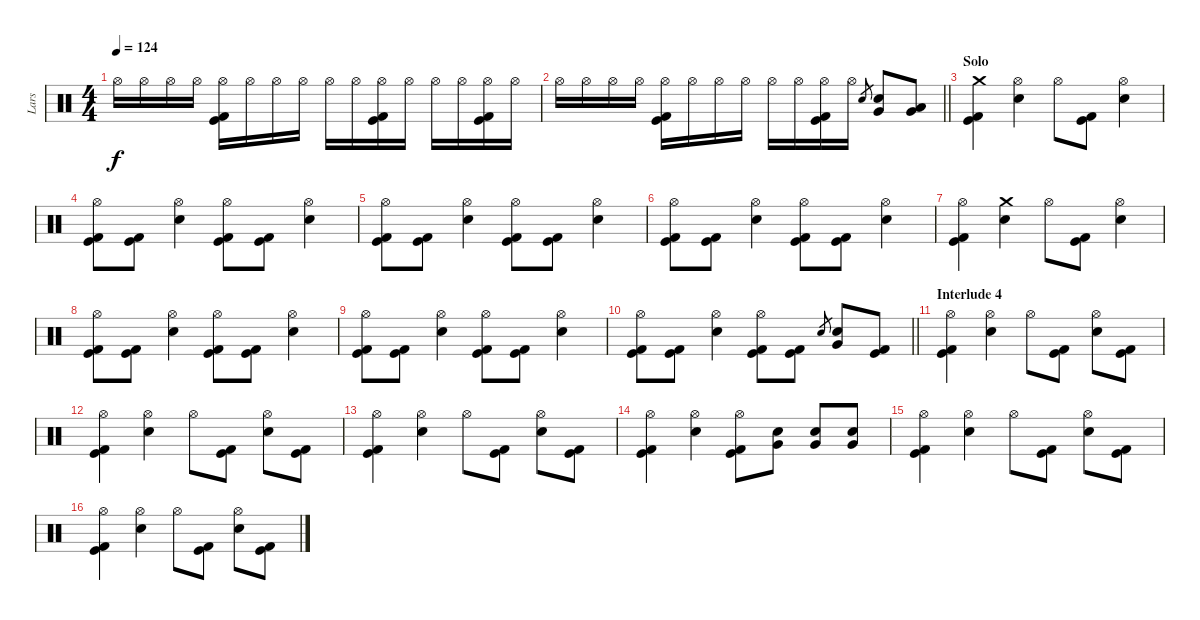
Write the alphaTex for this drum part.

\track ("Lars" "Lars") {instrument percussion}
\staff {score}
\articulation defaults
\ts (4 4)
\tempo 124
\clef neutral
\ks c "Hi-Hat (open)".16{dy f} "Hi-Hat (open)".16 "Hi-Hat (open)".16 "Hi-Hat (open)".16
("Hi-Hat (open)" "Kick (hit)" "Kick (hit) 2").16 "Hi-Hat (open)".16 "Hi-Hat (open)".16 "Hi-Hat (open)".16 "Hi-Hat (open)".16 "Hi-Hat (open)".16 ("Hi-Hat (open)" "Kick (hit)" "Kick (hit) 2").16 "Hi-Hat (open)".16 "Hi-Hat (open)".16 "Hi-Hat (open)".16 ("Hi-Hat (open)" "Kick (hit)" "Kick (hit) 2").16 "Hi-Hat (open)".16 |
\barLineRight lightlight "Hi-Hat (open)".16 "Hi-Hat (open)".16 "Hi-Hat (open)".16 "Hi-Hat (open)".16
("Hi-Hat (open)" "Kick (hit)" "Kick (hit) 2").16 "Hi-Hat (open)".16 "Hi-Hat (open)".16 "Hi-Hat (open)".16 "Hi-Hat (open)".16 "Hi-Hat (open)".16 ("Hi-Hat (open)" "Kick (hit)" "Kick (hit) 2").16 "Hi-Hat (open)".16 "Electric Snare (hit)".8{gr} ("Electric Snare (hit)" "Very Low Tom (hit)").8 ("Low Tom (hit)" "Very Low Tom (hit)").8 |
\section ("" "Solo")
("Crash medium (hit)" "Kick (hit)" "Kick (hit) 2").4 ("Hi-Hat (open)" "Electric Snare (hit)").4 "Hi-Hat (open)".8 ("Kick (hit)" "Kick (hit) 2").8 ("Hi-Hat (open)" "Electric Snare (hit)").4 |
("Hi-Hat (open)" "Kick (hit)" "Kick (hit) 2").8 ("Kick (hit)" "Kick (hit) 2").8 ("Hi-Hat (open)" "Electric Snare (hit)").4 ("Hi-Hat (open)" "Kick (hit)" "Kick (hit) 2").8 ("Kick (hit)" "Kick (hit) 2").8 ("Hi-Hat (open)" "Electric Snare (hit)").4 |
("Hi-Hat (open)" "Kick (hit)" "Kick (hit) 2").8 ("Kick (hit)" "Kick (hit) 2").8 ("Hi-Hat (open)" "Electric Snare (hit)").4 ("Hi-Hat (open)" "Kick (hit)" "Kick (hit) 2").8 ("Kick (hit)" "Kick (hit) 2").8 ("Hi-Hat (open)" "Electric Snare (hit)").4 |
("Hi-Hat (open)" "Kick (hit)" "Kick (hit) 2").8 ("Kick (hit)" "Kick (hit) 2").8 ("Hi-Hat (open)" "Electric Snare (hit)").4 ("Hi-Hat (open)" "Kick (hit)" "Kick (hit) 2").8 ("Kick (hit)" "Kick (hit) 2").8 ("Hi-Hat (open)" "Electric Snare (hit)").4 |
("Hi-Hat (open)" "Kick (hit)" "Kick (hit) 2").4 ("Crash medium (hit)" "Electric Snare (hit)").4 "Hi-Hat (open)".8 ("Kick (hit)" "Kick (hit) 2").8 ("Hi-Hat (open)" "Electric Snare (hit)").4 |
("Hi-Hat (open)" "Kick (hit)" "Kick (hit) 2").8 ("Kick (hit)" "Kick (hit) 2").8 ("Hi-Hat (open)" "Electric Snare (hit)").4 ("Hi-Hat (open)" "Kick (hit)" "Kick (hit) 2").8 ("Kick (hit)" "Kick (hit) 2").8 ("Hi-Hat (open)" "Electric Snare (hit)").4 |
("Hi-Hat (open)" "Kick (hit)" "Kick (hit) 2").8 ("Kick (hit)" "Kick (hit) 2").8 ("Hi-Hat (open)" "Electric Snare (hit)").4 ("Hi-Hat (open)" "Kick (hit)" "Kick (hit) 2").8 ("Kick (hit)" "Kick (hit) 2").8 ("Hi-Hat (open)" "Electric Snare (hit)").4 |
\barLineRight lightlight
("Hi-Hat (open)" "Kick (hit)" "Kick (hit) 2").8 ("Kick (hit)" "Kick (hit) 2").8 ("Hi-Hat (open)" "Electric Snare (hit)").4 ("Hi-Hat (open)" "Kick (hit)" "Kick (hit) 2").8 ("Kick (hit)" "Kick (hit) 2").8 "Electric Snare (hit)".8{gr} ("Electric Snare (hit)" "Very Low Tom (hit)").8 ("Kick (hit)" "Kick (hit) 2").8 |
\section ("" "Interlude 4")
("Hi-Hat (open)" "Kick (hit)" "Kick (hit) 2").4 ("Hi-Hat (open)" "Electric Snare (hit)").4 "Hi-Hat (open)".8 ("Kick (hit)" "Kick (hit) 2").8 ("Hi-Hat (open)" "Electric Snare (hit)").8 ("Kick (hit)" "Kick (hit) 2").8 |
("Hi-Hat (open)" "Kick (hit)" "Kick (hit) 2").4 ("Hi-Hat (open)" "Electric Snare (hit)").4 "Hi-Hat (open)".8 ("Kick (hit)" "Kick (hit) 2").8 ("Hi-Hat (open)" "Electric Snare (hit)").8 ("Kick (hit)" "Kick (hit) 2").8 |
("Hi-Hat (open)" "Kick (hit)" "Kick (hit) 2").4 ("Hi-Hat (open)" "Electric Snare (hit)").4 "Hi-Hat (open)".8 ("Kick (hit)" "Kick (hit) 2").8 ("Hi-Hat (open)" "Electric Snare (hit)").8 ("Kick (hit)" "Kick (hit) 2").8 |
("Hi-Hat (open)" "Kick (hit)" "Kick (hit) 2").4 ("Hi-Hat (open)" "Electric Snare (hit)").4 ("Hi-Hat (open)" "Kick (hit)" "Kick (hit) 2").8 ("Electric Snare (hit)" "Very Low Tom (hit)").8 ("Electric Snare (hit)" "Very Low Tom (hit)").8 ("Electric Snare (hit)" "Very Low Tom (hit)").8 |
("Hi-Hat (open)" "Kick (hit)" "Kick (hit) 2").4 ("Hi-Hat (open)" "Electric Snare (hit)").4 "Hi-Hat (open)".8 ("Kick (hit)" "Kick (hit) 2").8 ("Hi-Hat (open)" "Electric Snare (hit)").8 ("Kick (hit)" "Kick (hit) 2").8 |
("Hi-Hat (open)" "Kick (hit)" "Kick (hit) 2").4 ("Hi-Hat (open)" "Electric Snare (hit)").4 "Hi-Hat (open)".8 ("Kick (hit)" "Kick (hit) 2").8 ("Hi-Hat (open)" "Electric Snare (hit)").8 ("Kick (hit)" "Kick (hit) 2").8
